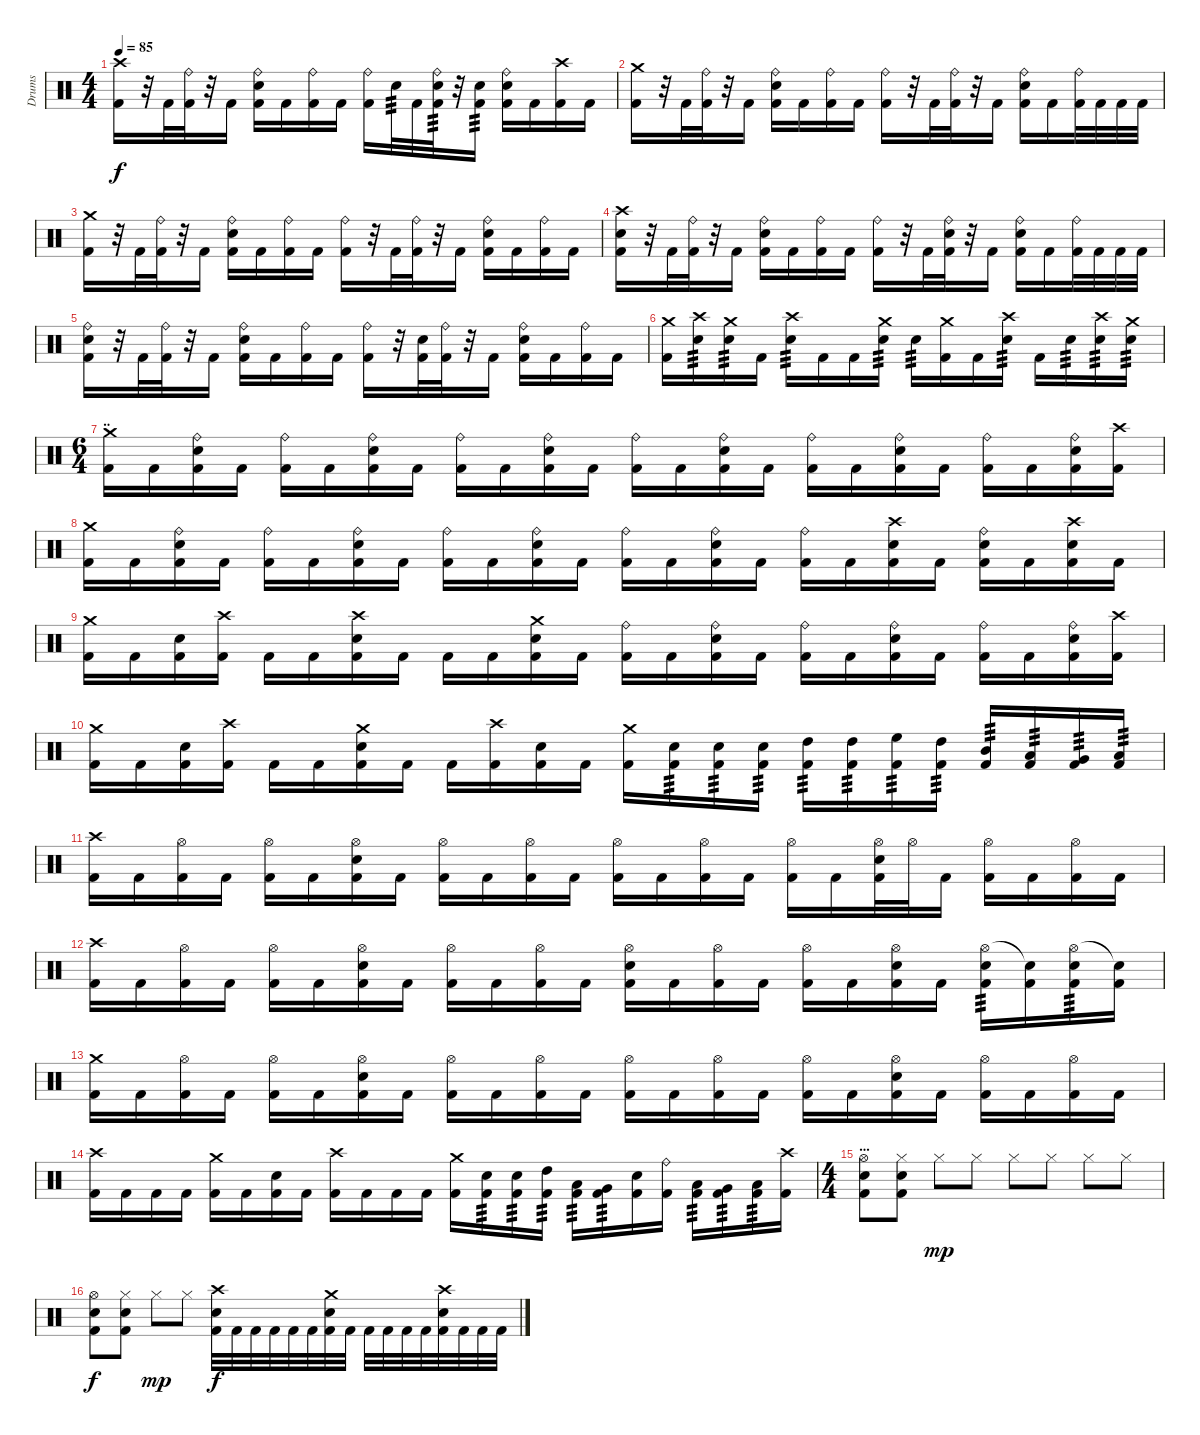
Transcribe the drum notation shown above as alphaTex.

\track ("Drums" "Drums") {instrument percussion}
\staff {score}
\articulation defaults
\ts (4 4)
\tempo 85
\clef neutral
\ks c
("Crash high (hit)" "Kick (hit) 2").16{dy f} r.32 "Kick (hit) 2".32 ("Ride (bell)" "Kick (hit) 2").32 r.32 "Kick (hit) 2".16 ("Ride (bell)" "Snare (hit) 2" "Kick (hit) 2").16 "Kick (hit) 2".16 ("Ride (bell)" "Kick (hit) 2").16 "Kick (hit) 2".16 ("Ride (bell)" "Kick (hit) 2").16 "Snare (hit) 2".32{tp 3} "Kick (hit) 2".32 ("Ride (bell)" "Snare (hit) 2" "Kick (hit) 2").32{tp 3} r.32 ("Snare (hit) 2" "Kick (hit) 2").16{tp 3} ("Ride (bell)" "Snare (hit) 2" "Kick (hit) 2").16 "Kick (hit) 2".16 ("Crash high (hit)" "Kick (hit) 2").16 "Kick (hit) 2".16 |
("Crash medium (hit)" "Kick (hit) 2").16 r.32 "Kick (hit) 2".32 ("Ride (bell)" "Kick (hit) 2").32 r.32 "Kick (hit) 2".16 ("Ride (bell)" "Snare (hit) 2" "Kick (hit) 2").16 "Kick (hit) 2".16 ("Ride (bell)" "Kick (hit) 2").16 "Kick (hit) 2".16 ("Ride (bell)" "Kick (hit) 2").16 r.32 "Kick (hit) 2".32 ("Ride (bell)" "Kick (hit) 2").32 r.32 "Kick (hit) 2".16 ("Ride (bell)" "Snare (hit) 2" "Kick (hit) 2").16 "Kick (hit) 2".16 ("Ride (bell)" "Kick (hit) 2").32 "Kick (hit) 2".32 "Kick (hit) 2".32 "Kick (hit) 2".32 |
("Crash medium (hit)" "Kick (hit) 2").16 r.32 "Kick (hit) 2".32 ("Ride (bell)" "Kick (hit) 2").32 r.32 "Kick (hit) 2".16 ("Ride (bell)" "Snare (hit) 2" "Kick (hit) 2").16 "Kick (hit) 2".16 ("Ride (bell)" "Kick (hit) 2").16 "Kick (hit) 2".16 ("Ride (bell)" "Kick (hit) 2").16 r.32 "Kick (hit) 2".32 ("Ride (bell)" "Kick (hit) 2").32 r.32 "Kick (hit) 2".16 ("Ride (bell)" "Snare (hit) 2" "Kick (hit) 2").16 "Kick (hit) 2".16 ("Ride (bell)" "Kick (hit) 2").16 "Kick (hit) 2".16 |
("Crash high (hit)" "Snare (hit) 2" "Kick (hit) 2").16 r.32 "Kick (hit) 2".32 ("Ride (bell)" "Kick (hit) 2").32 r.32 "Kick (hit) 2".16 ("Ride (bell)" "Snare (hit) 2" "Kick (hit) 2").16 "Kick (hit) 2".16 ("Ride (bell)" "Kick (hit) 2").16 "Kick (hit) 2".16 ("Ride (bell)" "Kick (hit) 2").16 r.32 "Kick (hit) 2".32 ("Ride (bell)" "Snare (hit) 2" "Kick (hit) 2").32 r.32 "Kick (hit) 2".16 ("Ride (bell)" "Snare (hit) 2" "Kick (hit) 2").16 "Kick (hit) 2".16 ("Ride (bell)" "Kick (hit) 2").32 "Kick (hit) 2".32 "Kick (hit) 2".32 "Kick (hit) 2".32 |
("Ride (bell)" "Snare (hit) 2" "Kick (hit) 2").16 r.32 "Kick (hit) 2".32 ("Ride (bell)" "Kick (hit) 2").32 r.32 "Kick (hit) 2".16 ("Ride (bell)" "Snare (hit) 2" "Kick (hit) 2").16 "Kick (hit) 2".16 ("Ride (bell)" "Kick (hit) 2").16 "Kick (hit) 2".16 ("Ride (bell)" "Kick (hit) 2").16 r.32 ("Snare (hit) 2" "Kick (hit) 2").32 ("Ride (bell)" "Kick (hit) 2").32 r.32 "Kick (hit) 2".16 ("Ride (bell)" "Snare (hit) 2" "Kick (hit) 2").16 "Kick (hit) 2".16 ("Ride (bell)" "Kick (hit) 2").16 "Kick (hit) 2".16 |
("Crash medium (hit)" "Kick (hit) 2").16 ("Crash high (hit)" "Snare (hit) 2").16{tp 3} ("Crash medium (hit)" "Snare (hit) 2").16{tp 3} "Kick (hit) 2".16 ("Crash high (hit)" "Snare (hit) 2").16{tp 3} "Kick (hit) 2".16 "Kick (hit) 2".16 ("Crash medium (hit)" "Snare (hit) 2").16{tp 3} "Snare (hit) 2".16{tp 3} ("Crash medium (hit)" "Kick (hit) 2").16 "Kick (hit) 2".16 ("Crash high (hit)" "Snare (hit) 2").16{tp 3} "Kick (hit) 2".16 "Snare (hit) 2".16{tp 3} ("Crash high (hit)" "Snare (hit) 2").16{tp 3} ("Crash medium (hit)" "Snare (hit) 2").16{tp 3} |
\ts (6 4)
\section ("" "..")
("Crash medium (hit)" "Kick (hit) 2").16 "Kick (hit) 2".16 ("Ride (bell)" "Snare (hit) 2" "Kick (hit) 2").16 "Kick (hit) 2".16 ("Ride (bell)" "Kick (hit) 2").16 "Kick (hit) 2".16 ("Ride (bell)" "Snare (hit) 2" "Kick (hit) 2").16 "Kick (hit) 2".16 ("Ride (bell)" "Kick (hit) 2").16 "Kick (hit) 2".16 ("Ride (bell)" "Snare (hit) 2" "Kick (hit) 2").16 "Kick (hit) 2".16 ("Ride (bell)" "Kick (hit) 2").16 "Kick (hit) 2".16 ("Ride (bell)" "Snare (hit) 2" "Kick (hit) 2").16 "Kick (hit) 2".16 ("Ride (bell)" "Kick (hit) 2").16 "Kick (hit) 2".16 ("Ride (bell)" "Snare (hit) 2" "Kick (hit) 2").16 "Kick (hit) 2".16 ("Ride (bell)" "Kick (hit) 2").16 "Kick (hit) 2".16 ("Ride (bell)" "Snare (hit) 2" "Kick (hit) 2").16 ("Crash high (hit)" "Kick (hit) 2").16 |
("Crash medium (hit)" "Kick (hit) 2").16 "Kick (hit) 2".16 ("Ride (bell)" "Snare (hit) 2" "Kick (hit) 2").16 "Kick (hit) 2".16 ("Ride (bell)" "Kick (hit) 2").16 "Kick (hit) 2".16 ("Ride (bell)" "Snare (hit) 2" "Kick (hit) 2").16 "Kick (hit) 2".16 ("Ride (bell)" "Kick (hit) 2").16 "Kick (hit) 2".16 ("Ride (bell)" "Snare (hit) 2" "Kick (hit) 2").16 "Kick (hit) 2".16 ("Ride (bell)" "Kick (hit) 2").16 "Kick (hit) 2".16 ("Ride (bell)" "Snare (hit) 2" "Kick (hit) 2").16 "Kick (hit) 2".16 ("Ride (bell)" "Kick (hit) 2").16 "Kick (hit) 2".16 ("Crash high (hit)" "Snare (hit) 2" "Kick (hit) 2").16 "Kick (hit) 2".16 ("Ride (bell)" "Snare (hit) 2" "Kick (hit) 2").16 "Kick (hit) 2".16 ("Crash high (hit)" "Snare (hit) 2" "Kick (hit) 2").16 "Kick (hit) 2".16 |
("Crash medium (hit)" "Kick (hit) 2").16 "Kick (hit) 2".16 ("Snare (hit) 2" "Kick (hit) 2").16 ("Crash high (hit)" "Kick (hit) 2").16 "Kick (hit) 2".16 "Kick (hit) 2".16 ("Crash high (hit)" "Snare (hit) 2" "Kick (hit) 2").16 "Kick (hit) 2".16 "Kick (hit) 2".16 "Kick (hit) 2".16 ("Crash medium (hit)" "Snare (hit) 2" "Kick (hit) 2").16 "Kick (hit) 2".16 ("Ride (bell)" "Kick (hit) 2").16 "Kick (hit) 2".16 ("Ride (bell)" "Snare (hit) 2" "Kick (hit) 2").16 "Kick (hit) 2".16 ("Ride (bell)" "Kick (hit) 2").16 "Kick (hit) 2".16 ("Ride (bell)" "Snare (hit) 2" "Kick (hit) 2").16 "Kick (hit) 2".16 ("Ride (bell)" "Kick (hit) 2").16 "Kick (hit) 2".16 ("Ride (bell)" "Snare (hit) 2" "Kick (hit) 2").16 ("Crash high (hit)" "Kick (hit) 2").16 |
("Crash medium (hit)" "Kick (hit) 2").16 "Kick (hit) 2".16 ("Snare (hit) 2" "Kick (hit) 2").16 ("Crash high (hit)" "Kick (hit) 2").16 "Kick (hit) 2".16 "Kick (hit) 2".16 ("Crash medium (hit)" "Snare (hit) 2" "Kick (hit) 2").16 "Kick (hit) 2".16 "Kick (hit) 2".16 ("Crash high (hit)" "Kick (hit) 2").16 ("Snare (hit) 2" "Kick (hit) 2").16 "Kick (hit) 2".16 ("Crash medium (hit)" "Kick (hit) 2").16 ("Electric Snare (hit)" "Kick (hit) 2").16{tp 3} ("Electric Snare (hit)" "Kick (hit) 2").16{tp 3} ("Electric Snare (hit)" "Kick (hit) 2").16{tp 3} ("High Tom (hit)" "Kick (hit) 2").16{tp 3} ("High Tom (hit)" "Kick (hit) 2").16{tp 3} ("High Floor Tom (hit)" "Kick (hit) 2").16{tp 3} ("High Tom (hit)" "Kick (hit) 2").16{tp 3} ("Mid Tom (hit)" "Kick (hit) 2").16{tp 3} ("Low Tom (hit)" "Kick (hit) 2").16{tp 3} ("Very Low Tom (hit)" "Kick (hit) 2").16{tp 3} ("Low Floor Tom (hit)" "Kick (hit) 2").16{tp 3} |
("Crash high (hit)" "Kick (hit) 2").16 "Kick (hit) 2".16 ("Hi-Hat (open)" "Kick (hit) 2").16 "Kick (hit) 2".16 ("Hi-Hat (open)" "Kick (hit) 2").16 "Kick (hit) 2".16 ("Hi-Hat (open)" "Snare (hit) 2" "Kick (hit) 2").16 "Kick (hit) 2".16 ("Hi-Hat (open)" "Kick (hit) 2").16 "Kick (hit) 2".16 ("Hi-Hat (open)" "Kick (hit) 2").16 "Kick (hit) 2".16 ("Hi-Hat (open)" "Kick (hit) 2").16 "Kick (hit) 2".16 ("Hi-Hat (open)" "Kick (hit) 2").16 "Kick (hit) 2".16 ("Hi-Hat (open)" "Kick (hit) 2").16 "Kick (hit) 2".16 ("Hi-Hat (open)" "Snare (hit) 2" "Kick (hit) 2").32 "Hi-Hat (open)".32 "Kick (hit) 2".16 ("Hi-Hat (open)" "Kick (hit) 2").16 "Kick (hit) 2".16 ("Hi-Hat (open)" "Kick (hit) 2").16 "Kick (hit) 2".16 |
("Crash high (hit)" "Kick (hit) 2").16 "Kick (hit) 2".16 ("Hi-Hat (open)" "Kick (hit) 2").16 "Kick (hit) 2".16 ("Hi-Hat (open)" "Kick (hit) 2").16 "Kick (hit) 2".16 ("Hi-Hat (open)" "Snare (hit) 2" "Kick (hit) 2").16 "Kick (hit) 2".16 ("Hi-Hat (open)" "Kick (hit) 2").16 "Kick (hit) 2".16 ("Hi-Hat (open)" "Kick (hit) 2").16 "Kick (hit) 2".16 ("Hi-Hat (open)" "Snare (hit) 2" "Kick (hit) 2").16 "Kick (hit) 2".16 ("Hi-Hat (open)" "Kick (hit) 2").16 "Kick (hit) 2".16 ("Hi-Hat (open)" "Kick (hit) 2").16 "Kick (hit) 2".16 ("Hi-Hat (open)" "Snare (hit) 2" "Kick (hit) 2").16 "Kick (hit) 2".16 ("Hi-Hat (open)" "Snare (hit) 2" "Kick (hit) 2").16{tp 3} ("Snare (hit)"{t} "Kick (hit) 2").16 ("Hi-Hat (open)" "Snare (hit) 2" "Kick (hit) 2").16{tp 3} ("Snare (hit)"{t} "Kick (hit) 2").16 |
("Crash medium (hit)" "Kick (hit) 2").16 "Kick (hit) 2".16 ("Hi-Hat (open)" "Kick (hit) 2").16 "Kick (hit) 2".16 ("Hi-Hat (open)" "Kick (hit) 2").16 "Kick (hit) 2".16 ("Hi-Hat (open)" "Snare (hit) 2" "Kick (hit) 2").16 "Kick (hit) 2".16 ("Hi-Hat (open)" "Kick (hit) 2").16 "Kick (hit) 2".16 ("Hi-Hat (open)" "Kick (hit) 2").16 "Kick (hit) 2".16 ("Hi-Hat (open)" "Kick (hit) 2").16 "Kick (hit) 2".16 ("Hi-Hat (open)" "Kick (hit) 2").16 "Kick (hit) 2".16 ("Hi-Hat (open)" "Kick (hit) 2").16 "Kick (hit) 2".16 ("Hi-Hat (open)" "Snare (hit) 2" "Kick (hit) 2").16 "Kick (hit) 2".16 ("Hi-Hat (open)" "Kick (hit) 2").16 "Kick (hit) 2".16 ("Hi-Hat (open)" "Kick (hit) 2").16 "Kick (hit) 2".16 |
("Crash high (hit)" "Kick (hit) 2").16 "Kick (hit) 2".16 "Kick (hit) 2".16 "Kick (hit) 2".16 ("Crash medium (hit)" "Kick (hit) 2").16 "Kick (hit) 2".16 ("Snare (hit) 2" "Kick (hit) 2").16 "Kick (hit) 2".16 ("Crash high (hit)" "Kick (hit) 2").16 "Kick (hit) 2".16 "Kick (hit) 2".16 "Kick (hit) 2".16 ("Crash medium (hit)" "Kick (hit) 2").16 ("Snare (hit) 2" "Kick (hit) 2").16{tp 3} ("Snare (hit) 2" "Kick (hit) 2").16{tp 3} ("High Tom (hit)" "Kick (hit) 2").16{tp 3} ("Low Tom (hit)" "Kick (hit) 2").16{tp 3} ("Very Low Tom (hit)" "Kick (hit) 2").16{tp 3} ("Snare (hit) 2" "Kick (hit) 2").16 ("Ride (bell)" "Kick (hit) 2").16 ("Low Tom (hit)" "Kick (hit) 2").16{tp 3} ("Very Low Tom (hit)" "Kick (hit) 2").16{tp 3} ("Low Floor Tom (hit)" "Kick (hit) 2").16{tp 3} ("Crash high (hit)" "Kick (hit) 2").16 |
\ts (4 4)
\section ("" "...")
("Hi-Hat (open)" "Snare (hit) 2" "Kick (hit) 2").8 ("Hi-Hat (closed)" "Snare (hit) 2" "Kick (hit) 2").8 "Hi-Hat (closed)".8{dy mp} "Hi-Hat (closed)".8 "Hi-Hat (closed)".8 "Hi-Hat (closed)".8 "Hi-Hat (closed)".8 "Hi-Hat (closed)".8 |
("Hi-Hat (open)" "Snare (hit) 2" "Kick (hit) 2").8{dy f} ("Hi-Hat (closed)" "Snare (hit) 2" "Kick (hit) 2").8 "Hi-Hat (closed)".8{dy mp} "Hi-Hat (closed)".8 ("Crash high (hit)" "Snare (hit) 2" "Kick (hit) 2").32{dy f} "Kick (hit) 2".32 "Kick (hit) 2".32 "Kick (hit) 2".32 "Kick (hit) 2".32 "Kick (hit) 2".32 ("Crash medium (hit)" "Snare (hit) 2" "Kick (hit) 2").32 "Kick (hit) 2".32 "Kick (hit) 2".32 "Kick (hit) 2".32 "Kick (hit) 2".32 "Kick (hit) 2".32 ("Crash high (hit)" "Snare (hit) 2" "Kick (hit) 2").32 "Kick (hit) 2".32 "Kick (hit) 2".32 "Kick (hit) 2".32
